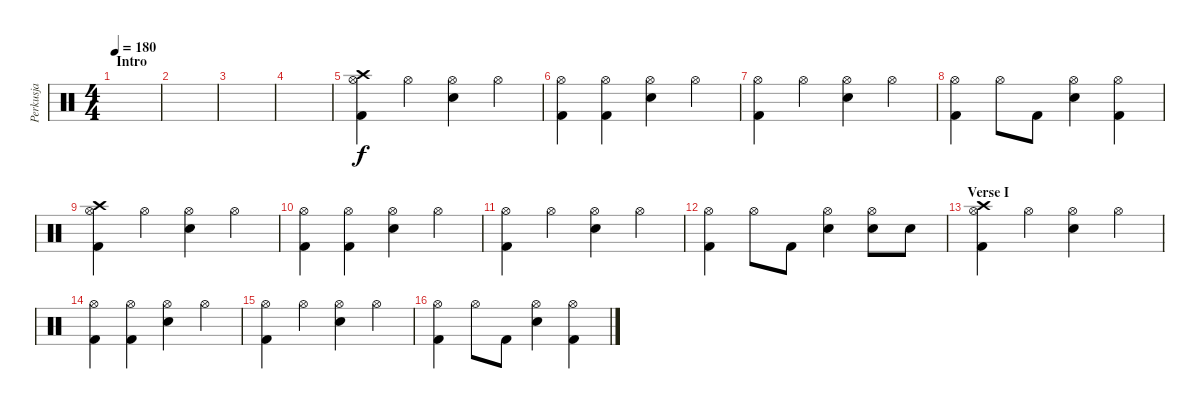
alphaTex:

\track ("Perkusja" "Perkusja") {instrument percussion}
\staff {score}
\articulation defaults
\ts (4 4)
\section ("" "Intro")
\tempo 180
\clef neutral
\ks c
|
|
|
|
("Hi-Hat (open)" "Kick (hit) 2" "Crash high (hit)").4 "Hi-Hat (open)".4 ("Hi-Hat (open)" "Snare (hit) 2").4 "Hi-Hat (open)".4 |
("Hi-Hat (open)" "Kick (hit) 2").4 ("Hi-Hat (open)" "Kick (hit) 2").4 ("Hi-Hat (open)" "Snare (hit) 2").4 "Hi-Hat (open)".4 |
("Hi-Hat (open)" "Kick (hit) 2").4 "Hi-Hat (open)".4 ("Hi-Hat (open)" "Snare (hit) 2").4 "Hi-Hat (open)".4 |
("Hi-Hat (open)" "Kick (hit) 2").4 "Hi-Hat (open)".8 "Kick (hit) 2".8 ("Hi-Hat (open)" "Snare (hit) 2").4 ("Hi-Hat (open)" "Kick (hit) 2").4 |
("Hi-Hat (open)" "Kick (hit) 2" "Crash high (hit)").4 "Hi-Hat (open)".4 ("Hi-Hat (open)" "Snare (hit) 2").4 "Hi-Hat (open)".4 |
("Hi-Hat (open)" "Kick (hit) 2").4 ("Hi-Hat (open)" "Kick (hit) 2").4 ("Hi-Hat (open)" "Snare (hit) 2").4 "Hi-Hat (open)".4 |
("Hi-Hat (open)" "Kick (hit) 2").4 "Hi-Hat (open)".4 ("Hi-Hat (open)" "Snare (hit) 2").4 "Hi-Hat (open)".4 |
("Hi-Hat (open)" "Kick (hit) 2").4 "Hi-Hat (open)".8 "Kick (hit) 2".8 ("Hi-Hat (open)" "Snare (hit) 2").4 ("Hi-Hat (open)" "Snare (hit) 2").8 "Snare (hit) 2".8 |
\section ("" "Verse I")
("Hi-Hat (open)" "Kick (hit) 2" "Crash high (hit)").4 "Hi-Hat (open)".4 ("Hi-Hat (open)" "Snare (hit) 2").4 "Hi-Hat (open)".4 |
("Hi-Hat (open)" "Kick (hit) 2").4 ("Hi-Hat (open)" "Kick (hit) 2").4 ("Hi-Hat (open)" "Snare (hit) 2").4 "Hi-Hat (open)".4 |
("Hi-Hat (open)" "Kick (hit) 2").4 "Hi-Hat (open)".4 ("Hi-Hat (open)" "Snare (hit) 2").4 "Hi-Hat (open)".4 |
("Hi-Hat (open)" "Kick (hit) 2").4 "Hi-Hat (open)".8 "Kick (hit) 2".8 ("Hi-Hat (open)" "Snare (hit) 2").4 ("Hi-Hat (open)" "Kick (hit) 2").4
